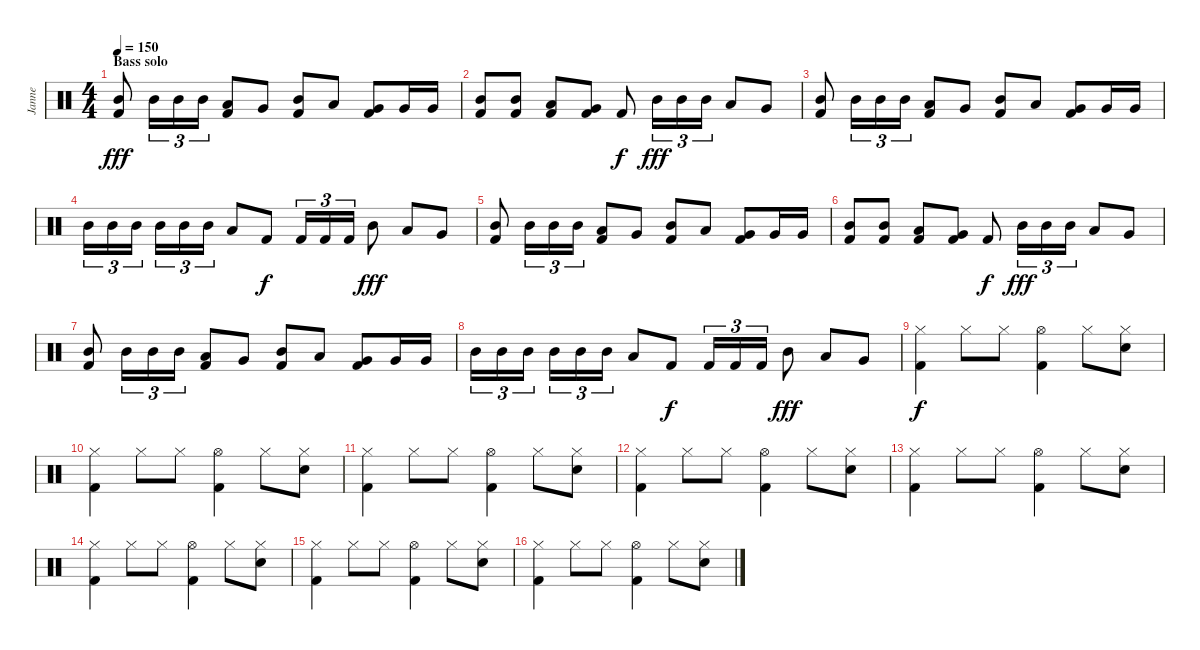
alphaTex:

\track ("Janne" "Janne") {instrument percussion}
\staff {score}
\articulation defaults
\ts (4 4)
\section ("" "Bass solo")
\tempo 150
\clef neutral
\ks c
("Mid Tom (hit)" "Kick (hit) 2").8{dy fff} "Mid Tom (hit)".16{tu (3 2)} "Mid Tom (hit)".16{tu (3 2)} "Mid Tom (hit)".16{tu (3 2)} ("Low Tom (hit)" "Kick (hit) 2").8 "Very Low Tom (hit)".8 ("Mid Tom (hit)" "Kick (hit) 2").8 "Low Tom (hit)".8 ("Very Low Tom (hit)" "Kick (hit) 2").8 "Very Low Tom (hit)".16 "Very Low Tom (hit)".16 |
("Mid Tom (hit)" "Kick (hit) 2").8 ("Mid Tom (hit)" "Kick (hit) 2").8 ("Low Tom (hit)" "Kick (hit) 2").8 ("Very Low Tom (hit)" "Kick (hit) 2").8 "Kick (hit) 2".8{dy f} "Mid Tom (hit)".16{tu (3 2) dy fff} "Mid Tom (hit)".16{tu (3 2)} "Mid Tom (hit)".16{tu (3 2)} "Low Tom (hit)".8 "Very Low Tom (hit)".8 |
("Mid Tom (hit)" "Kick (hit) 2").8 "Mid Tom (hit)".16{tu (3 2)} "Mid Tom (hit)".16{tu (3 2)} "Mid Tom (hit)".16{tu (3 2)} ("Low Tom (hit)" "Kick (hit) 2").8 "Very Low Tom (hit)".8 ("Mid Tom (hit)" "Kick (hit) 2").8 "Low Tom (hit)".8 ("Very Low Tom (hit)" "Kick (hit) 2").8 "Very Low Tom (hit)".16 "Very Low Tom (hit)".16 |
"Mid Tom (hit)".16{tu (3 2)} "Mid Tom (hit)".16{tu (3 2)} "Mid Tom (hit)".16{tu (3 2)} "Mid Tom (hit)".16{tu (3 2)} "Mid Tom (hit)".16{tu (3 2)} "Mid Tom (hit)".16{tu (3 2)} "Low Tom (hit)".8 "Kick (hit) 2".8{dy f} "Kick (hit) 2".16{tu (3 2)} "Kick (hit) 2".16{tu (3 2)} "Kick (hit) 2".16{tu (3 2)} "Mid Tom (hit)".8{dy fff} "Low Tom (hit)".8 "Very Low Tom (hit)".8 |
("Mid Tom (hit)" "Kick (hit) 2").8 "Mid Tom (hit)".16{tu (3 2)} "Mid Tom (hit)".16{tu (3 2)} "Mid Tom (hit)".16{tu (3 2)} ("Low Tom (hit)" "Kick (hit) 2").8 "Very Low Tom (hit)".8 ("Mid Tom (hit)" "Kick (hit) 2").8 "Low Tom (hit)".8 ("Very Low Tom (hit)" "Kick (hit) 2").8 "Very Low Tom (hit)".16 "Very Low Tom (hit)".16 |
("Mid Tom (hit)" "Kick (hit) 2").8 ("Mid Tom (hit)" "Kick (hit) 2").8 ("Low Tom (hit)" "Kick (hit) 2").8 ("Very Low Tom (hit)" "Kick (hit) 2").8 "Kick (hit) 2".8{dy f} "Mid Tom (hit)".16{tu (3 2) dy fff} "Mid Tom (hit)".16{tu (3 2)} "Mid Tom (hit)".16{tu (3 2)} "Low Tom (hit)".8 "Very Low Tom (hit)".8 |
("Mid Tom (hit)" "Kick (hit) 2").8 "Mid Tom (hit)".16{tu (3 2)} "Mid Tom (hit)".16{tu (3 2)} "Mid Tom (hit)".16{tu (3 2)} ("Low Tom (hit)" "Kick (hit) 2").8 "Very Low Tom (hit)".8 ("Mid Tom (hit)" "Kick (hit) 2").8 "Low Tom (hit)".8 ("Very Low Tom (hit)" "Kick (hit) 2").8 "Very Low Tom (hit)".16 "Very Low Tom (hit)".16 |
"Mid Tom (hit)".16{tu (3 2)} "Mid Tom (hit)".16{tu (3 2)} "Mid Tom (hit)".16{tu (3 2)} "Mid Tom (hit)".16{tu (3 2)} "Mid Tom (hit)".16{tu (3 2)} "Mid Tom (hit)".16{tu (3 2)} "Low Tom (hit)".8 "Kick (hit) 2".8{dy f} "Kick (hit) 2".16{tu (3 2)} "Kick (hit) 2".16{tu (3 2)} "Kick (hit) 2".16{tu (3 2)} "Mid Tom (hit)".8{dy fff} "Low Tom (hit)".8 "Very Low Tom (hit)".8 |
("Hi-Hat (closed)" "Kick (hit) 2").4{dy f} "Hi-Hat (closed)".8 "Hi-Hat (closed)".8 ("Hi-Hat (open)" "Kick (hit) 2").4 "Hi-Hat (closed)".8 ("Hi-Hat (closed)" "Electric Snare (hit)").8 |
("Hi-Hat (closed)" "Kick (hit) 2").4 "Hi-Hat (closed)".8 "Hi-Hat (closed)".8 ("Hi-Hat (open)" "Kick (hit) 2").4 "Hi-Hat (closed)".8 ("Hi-Hat (closed)" "Electric Snare (hit)").8 |
("Hi-Hat (closed)" "Kick (hit) 2").4 "Hi-Hat (closed)".8 "Hi-Hat (closed)".8 ("Hi-Hat (open)" "Kick (hit) 2").4 "Hi-Hat (closed)".8 ("Hi-Hat (closed)" "Electric Snare (hit)").8 |
("Hi-Hat (closed)" "Kick (hit) 2").4 "Hi-Hat (closed)".8 "Hi-Hat (closed)".8 ("Hi-Hat (open)" "Kick (hit) 2").4 "Hi-Hat (closed)".8 ("Hi-Hat (closed)" "Electric Snare (hit)").8 |
("Hi-Hat (closed)" "Kick (hit) 2").4 "Hi-Hat (closed)".8 "Hi-Hat (closed)".8 ("Hi-Hat (open)" "Kick (hit) 2").4 "Hi-Hat (closed)".8 ("Hi-Hat (closed)" "Electric Snare (hit)").8 |
("Hi-Hat (closed)" "Kick (hit) 2").4 "Hi-Hat (closed)".8 "Hi-Hat (closed)".8 ("Hi-Hat (open)" "Kick (hit) 2").4 "Hi-Hat (closed)".8 ("Hi-Hat (closed)" "Electric Snare (hit)").8 |
("Hi-Hat (closed)" "Kick (hit) 2").4 "Hi-Hat (closed)".8 "Hi-Hat (closed)".8 ("Hi-Hat (open)" "Kick (hit) 2").4 "Hi-Hat (closed)".8 ("Hi-Hat (closed)" "Electric Snare (hit)").8 |
("Hi-Hat (closed)" "Kick (hit) 2").4 "Hi-Hat (closed)".8 "Hi-Hat (closed)".8 ("Hi-Hat (open)" "Kick (hit) 2").4 "Hi-Hat (closed)".8 ("Hi-Hat (closed)" "Electric Snare (hit)").8
